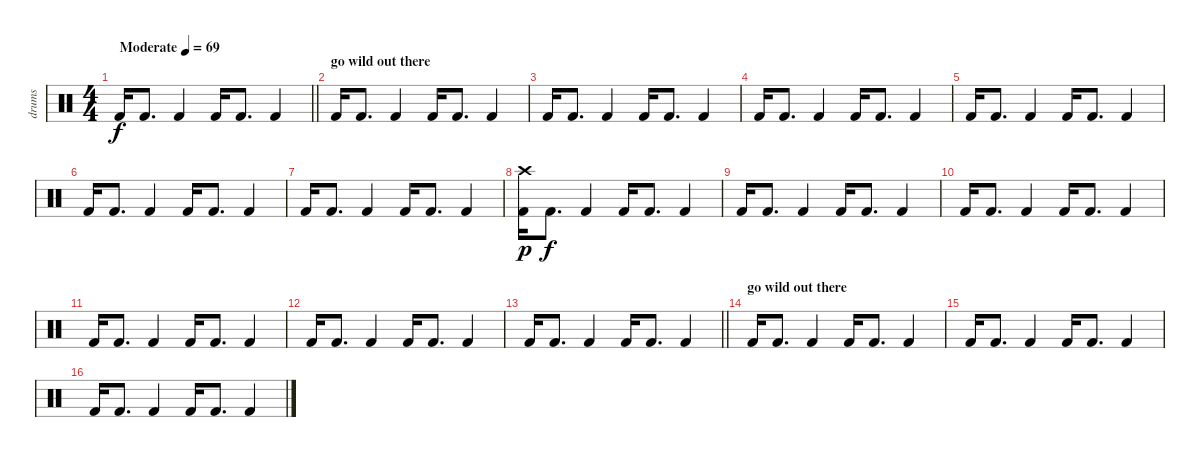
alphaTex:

\track ("drums" "drums") {instrument percussion}
\staff {score}
\articulation defaults
\ts (4 4)
\tempo (69 "Moderate")
\clef neutral
\barLineRight lightlight
\ks c "Kick (hit) 2".16{dy f} "Kick (hit) 2".8{d} "Kick (hit) 2".4 "Kick (hit) 2".16 "Kick (hit) 2".8{d} "Kick (hit) 2".4
|
\section ("" "go wild out there")
"Kick (hit) 2".16 "Kick (hit) 2".8{d} "Kick (hit) 2".4 "Kick (hit) 2".16 "Kick (hit) 2".8{d} "Kick (hit) 2".4 |
"Kick (hit) 2".16 "Kick (hit) 2".8{d} "Kick (hit) 2".4 "Kick (hit) 2".16 "Kick (hit) 2".8{d} "Kick (hit) 2".4 |
"Kick (hit) 2".16 "Kick (hit) 2".8{d} "Kick (hit) 2".4 "Kick (hit) 2".16 "Kick (hit) 2".8{d} "Kick (hit) 2".4 |
"Kick (hit) 2".16 "Kick (hit) 2".8{d} "Kick (hit) 2".4 "Kick (hit) 2".16 "Kick (hit) 2".8{d} "Kick (hit) 2".4 |
"Kick (hit) 2".16 "Kick (hit) 2".8{d} "Kick (hit) 2".4 "Kick (hit) 2".16 "Kick (hit) 2".8{d} "Kick (hit) 2".4 |
"Kick (hit) 2".16 "Kick (hit) 2".8{d} "Kick (hit) 2".4 "Kick (hit) 2".16 "Kick (hit) 2".8{d} "Kick (hit) 2".4 |
("Kick (hit) 2" "Crash high (hit)").16{dy p} "Kick (hit) 2".8{d dy f} "Kick (hit) 2".4 "Kick (hit) 2".16 "Kick (hit) 2".8{d} "Kick (hit) 2".4 |
"Kick (hit) 2".16 "Kick (hit) 2".8{d} "Kick (hit) 2".4 "Kick (hit) 2".16 "Kick (hit) 2".8{d} "Kick (hit) 2".4 |
"Kick (hit) 2".16 "Kick (hit) 2".8{d} "Kick (hit) 2".4 "Kick (hit) 2".16 "Kick (hit) 2".8{d} "Kick (hit) 2".4 |
"Kick (hit) 2".16 "Kick (hit) 2".8{d} "Kick (hit) 2".4 "Kick (hit) 2".16 "Kick (hit) 2".8{d} "Kick (hit) 2".4 |
"Kick (hit) 2".16 "Kick (hit) 2".8{d} "Kick (hit) 2".4 "Kick (hit) 2".16 "Kick (hit) 2".8{d} "Kick (hit) 2".4 |
\barLineRight lightlight "Kick (hit) 2".16 "Kick (hit) 2".8{d} "Kick (hit) 2".4 "Kick (hit) 2".16 "Kick (hit) 2".8{d} "Kick (hit) 2".4
|
\section ("" "go wild out there")
"Kick (hit) 2".16 "Kick (hit) 2".8{d} "Kick (hit) 2".4 "Kick (hit) 2".16 "Kick (hit) 2".8{d} "Kick (hit) 2".4 |
"Kick (hit) 2".16 "Kick (hit) 2".8{d} "Kick (hit) 2".4 "Kick (hit) 2".16 "Kick (hit) 2".8{d} "Kick (hit) 2".4 |
"Kick (hit) 2".16 "Kick (hit) 2".8{d} "Kick (hit) 2".4 "Kick (hit) 2".16 "Kick (hit) 2".8{d} "Kick (hit) 2".4
